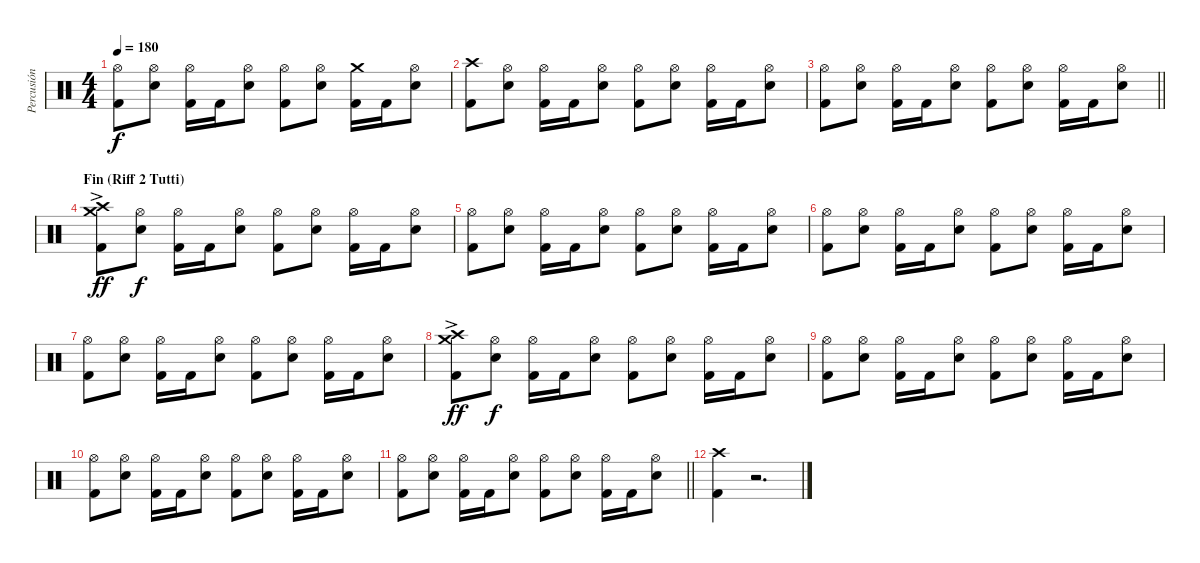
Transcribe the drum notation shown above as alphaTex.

\track ("Percusión" "Percusión") {instrument percussion}
\staff {score}
\articulation defaults
\ts (4 4)
\tempo 180
\clef neutral
\ks c
("Hi-Hat (open)" "Kick (hit) 2").8{dy f} ("Hi-Hat (open)" "Snare (hit) 2").8 ("Hi-Hat (open)" "Kick (hit) 2").16 "Kick (hit) 2".16 ("Hi-Hat (open)" "Snare (hit) 2").8 ("Hi-Hat (open)" "Kick (hit) 2").8 ("Hi-Hat (open)" "Snare (hit) 2").8 ("Crash medium (hit)" "Kick (hit) 2").16 "Kick (hit) 2".16 ("Hi-Hat (open)" "Snare (hit) 2").8 |
("Crash high (hit)" "Kick (hit) 2").8 ("Hi-Hat (open)" "Snare (hit) 2").8 ("Hi-Hat (open)" "Kick (hit) 2").16 "Kick (hit) 2".16 ("Hi-Hat (open)" "Snare (hit) 2").8 ("Hi-Hat (open)" "Kick (hit) 2").8 ("Hi-Hat (open)" "Snare (hit) 2").8 ("Hi-Hat (open)" "Kick (hit) 2").16 "Kick (hit) 2".16 ("Hi-Hat (open)" "Snare (hit) 2").8 |
\barLineRight lightlight
("Hi-Hat (open)" "Kick (hit) 2").8 ("Hi-Hat (open)" "Snare (hit) 2").8 ("Hi-Hat (open)" "Kick (hit) 2").16 "Kick (hit) 2".16 ("Hi-Hat (open)" "Snare (hit) 2").8 ("Hi-Hat (open)" "Kick (hit) 2").8 ("Hi-Hat (open)" "Snare (hit) 2").8 ("Hi-Hat (open)" "Kick (hit) 2").16 "Kick (hit) 2".16 ("Hi-Hat (open)" "Snare (hit) 2").8 |
\section ("" "Fin (Riff 2 Tutti)")
("Crash medium (hit)"{ac} "Crash high (hit)" "Kick (hit) 2").8{dy ff} ("Hi-Hat (open)" "Snare (hit) 2").8{dy f} ("Hi-Hat (open)" "Kick (hit) 2").16 "Kick (hit) 2".16 ("Hi-Hat (open)" "Snare (hit) 2").8 ("Hi-Hat (open)" "Kick (hit) 2").8 ("Hi-Hat (open)" "Snare (hit) 2").8 ("Hi-Hat (open)" "Kick (hit) 2").16 "Kick (hit) 2".16 ("Hi-Hat (open)" "Snare (hit) 2").8 |
("Hi-Hat (open)" "Kick (hit) 2").8 ("Hi-Hat (open)" "Snare (hit) 2").8 ("Hi-Hat (open)" "Kick (hit) 2").16 "Kick (hit) 2".16 ("Hi-Hat (open)" "Snare (hit) 2").8 ("Hi-Hat (open)" "Kick (hit) 2").8 ("Hi-Hat (open)" "Snare (hit) 2").8 ("Hi-Hat (open)" "Kick (hit) 2").16 "Kick (hit) 2".16 ("Hi-Hat (open)" "Snare (hit) 2").8 |
("Hi-Hat (open)" "Kick (hit) 2").8 ("Hi-Hat (open)" "Snare (hit) 2").8 ("Hi-Hat (open)" "Kick (hit) 2").16 "Kick (hit) 2".16 ("Hi-Hat (open)" "Snare (hit) 2").8 ("Hi-Hat (open)" "Kick (hit) 2").8 ("Hi-Hat (open)" "Snare (hit) 2").8 ("Hi-Hat (open)" "Kick (hit) 2").16 "Kick (hit) 2".16 ("Hi-Hat (open)" "Snare (hit) 2").8 |
("Hi-Hat (open)" "Kick (hit) 2").8 ("Hi-Hat (open)" "Snare (hit) 2").8 ("Hi-Hat (open)" "Kick (hit) 2").16 "Kick (hit) 2".16 ("Hi-Hat (open)" "Snare (hit) 2").8 ("Hi-Hat (open)" "Kick (hit) 2").8 ("Hi-Hat (open)" "Snare (hit) 2").8 ("Hi-Hat (open)" "Kick (hit) 2").16 "Kick (hit) 2".16 ("Hi-Hat (open)" "Snare (hit) 2").8 |
("Crash medium (hit)"{ac} "Crash high (hit)" "Kick (hit) 2").8{dy ff} ("Hi-Hat (open)" "Snare (hit) 2").8{dy f} ("Hi-Hat (open)" "Kick (hit) 2").16 "Kick (hit) 2".16 ("Hi-Hat (open)" "Snare (hit) 2").8 ("Hi-Hat (open)" "Kick (hit) 2").8 ("Hi-Hat (open)" "Snare (hit) 2").8 ("Hi-Hat (open)" "Kick (hit) 2").16 "Kick (hit) 2".16 ("Hi-Hat (open)" "Snare (hit) 2").8 |
("Hi-Hat (open)" "Kick (hit) 2").8 ("Hi-Hat (open)" "Snare (hit) 2").8 ("Hi-Hat (open)" "Kick (hit) 2").16 "Kick (hit) 2".16 ("Hi-Hat (open)" "Snare (hit) 2").8 ("Hi-Hat (open)" "Kick (hit) 2").8 ("Hi-Hat (open)" "Snare (hit) 2").8 ("Hi-Hat (open)" "Kick (hit) 2").16 "Kick (hit) 2".16 ("Hi-Hat (open)" "Snare (hit) 2").8 |
("Hi-Hat (open)" "Kick (hit) 2").8 ("Hi-Hat (open)" "Snare (hit) 2").8 ("Hi-Hat (open)" "Kick (hit) 2").16 "Kick (hit) 2".16 ("Hi-Hat (open)" "Snare (hit) 2").8 ("Hi-Hat (open)" "Kick (hit) 2").8 ("Hi-Hat (open)" "Snare (hit) 2").8 ("Hi-Hat (open)" "Kick (hit) 2").16 "Kick (hit) 2".16 ("Hi-Hat (open)" "Snare (hit) 2").8 |
\barLineRight lightlight
("Hi-Hat (open)" "Kick (hit) 2").8 ("Hi-Hat (open)" "Snare (hit) 2").8 ("Hi-Hat (open)" "Kick (hit) 2").16 "Kick (hit) 2".16 ("Hi-Hat (open)" "Snare (hit) 2").8 ("Hi-Hat (open)" "Kick (hit) 2").8 ("Hi-Hat (open)" "Snare (hit) 2").8 ("Hi-Hat (open)" "Kick (hit) 2").16 "Kick (hit) 2".16 ("Hi-Hat (open)" "Snare (hit) 2").8 |
("Crash high (hit)" "Kick (hit) 2").4 r.2{d}
